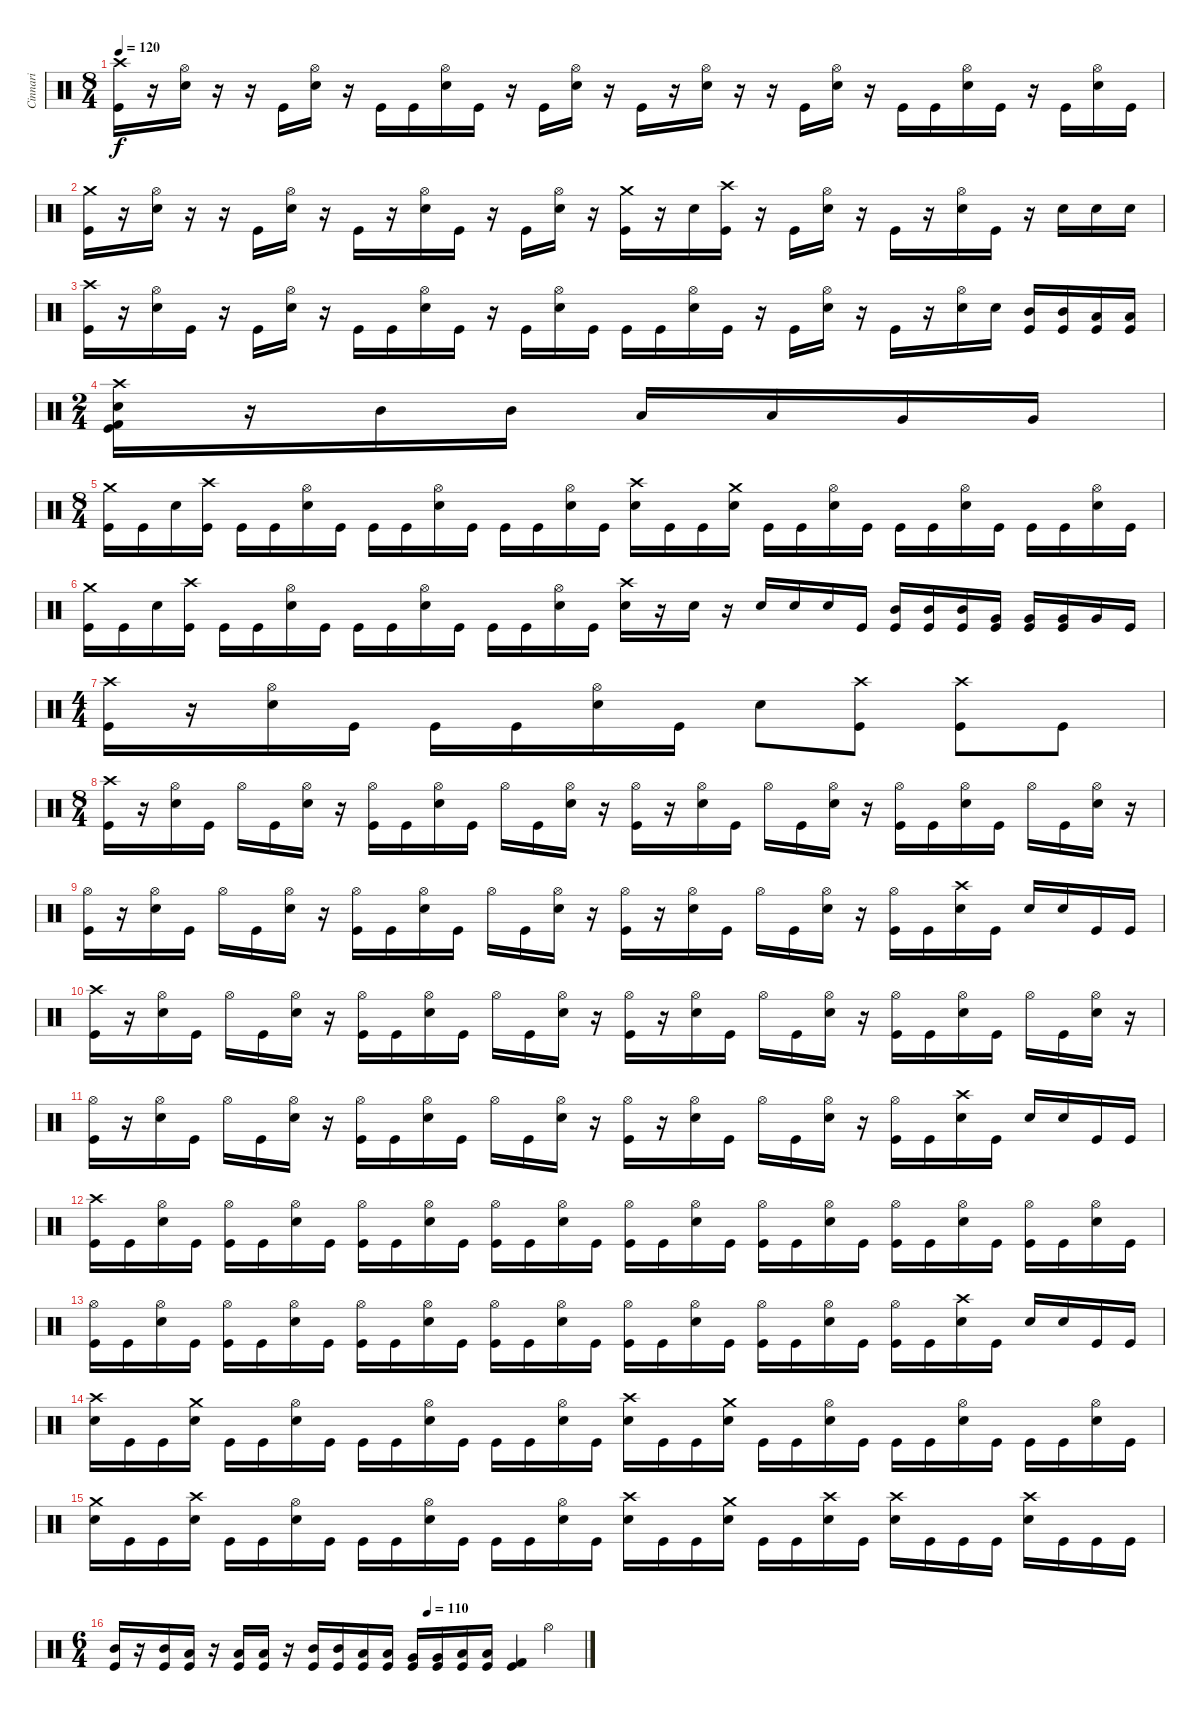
\track ("Cinnari" "Cinnari") {instrument percussion}
\staff {score}
\articulation defaults
\ts (8 4)
\tempo 120
\clef neutral
\ks c
("Crash high (hit)" "Kick (hit)").16{dy f} r.16 ("Hi-Hat (open)" "Electric Snare (hit)").16 r.16 r.16 "Kick (hit)".16 ("Hi-Hat (open)" "Electric Snare (hit)").16 r.16 "Kick (hit)".16 "Kick (hit)".16 ("Hi-Hat (open)" "Electric Snare (hit)").16 "Kick (hit)".16 r.16 "Kick (hit)".16 ("Hi-Hat (open)" "Electric Snare (hit)").16 r.16 "Kick (hit)".16 r.16 ("Hi-Hat (open)" "Electric Snare (hit)").16 r.16 r.16 "Kick (hit)".16 ("Hi-Hat (open)" "Electric Snare (hit)").16 r.16 "Kick (hit)".16 "Kick (hit)".16 ("Hi-Hat (open)" "Electric Snare (hit)").16 "Kick (hit)".16 r.16 "Kick (hit)".16 ("Hi-Hat (open)" "Electric Snare (hit)").16 "Kick (hit)".16 |
("Crash medium (hit)" "Kick (hit)").16 r.16 ("Hi-Hat (open)" "Electric Snare (hit)").16 r.16 r.16 "Kick (hit)".16 ("Hi-Hat (open)" "Electric Snare (hit)").16 r.16 "Kick (hit)".16 r.16 ("Hi-Hat (open)" "Electric Snare (hit)").16 "Kick (hit)".16 r.16 "Kick (hit)".16 ("Hi-Hat (open)" "Electric Snare (hit)").16 r.16 ("Crash medium (hit)" "Kick (hit)").16 r.16 "Electric Snare (hit)".16 ("Crash high (hit)" "Kick (hit)").16 r.16 "Kick (hit)".16 ("Hi-Hat (open)" "Electric Snare (hit)").16 r.16 "Kick (hit)".16 r.16 ("Hi-Hat (open)" "Electric Snare (hit)").16 "Kick (hit)".16 r.16 "Electric Snare (hit)".16 "Electric Snare (hit)".16 "Electric Snare (hit)".16 |
("Crash high (hit)" "Kick (hit)").16 r.16 ("Hi-Hat (open)" "Electric Snare (hit)").16 "Kick (hit)".16 r.16 "Kick (hit)".16 ("Hi-Hat (open)" "Electric Snare (hit)").16 r.16 "Kick (hit)".16 "Kick (hit)".16 ("Hi-Hat (open)" "Electric Snare (hit)").16 "Kick (hit)".16 r.16 "Kick (hit)".16 ("Hi-Hat (open)" "Electric Snare (hit)").16 "Kick (hit)".16 "Kick (hit)".16 "Kick (hit)".16 ("Hi-Hat (open)" "Electric Snare (hit)").16 "Kick (hit)".16 r.16 "Kick (hit)".16 ("Hi-Hat (open)" "Electric Snare (hit)").16 r.16 "Kick (hit)".16 r.16 ("Hi-Hat (open)" "Electric Snare (hit)").16 "Electric Snare (hit)".16 ("Mid Tom (hit)" "Kick (hit)").16 ("Mid Tom (hit)" "Kick (hit)").16 ("Low Tom (hit)" "Kick (hit)").16 ("Low Tom (hit)" "Kick (hit)").16 |
\ts (2 4)
("Crash high (hit)" "Kick (hit) 2" "Electric Snare (hit)" "Kick (hit)").16 r.16 "Mid Tom (hit)".16 "Mid Tom (hit)".16 "Low Tom (hit)".16 "Low Tom (hit)".16 "Very Low Tom (hit)".16 "Very Low Tom (hit)".16 |
\ts (8 4)
("Crash medium (hit)" "Kick (hit)").16 "Kick (hit)".16 "Electric Snare (hit)".16 ("Crash high (hit)" "Kick (hit)").16 "Kick (hit)".16 "Kick (hit)".16 ("Hi-Hat (open)" "Electric Snare (hit)").16 "Kick (hit)".16 "Kick (hit)".16 "Kick (hit)".16 ("Hi-Hat (open)" "Electric Snare (hit)").16 "Kick (hit)".16 "Kick (hit)".16 "Kick (hit)".16 ("Hi-Hat (open)" "Electric Snare (hit)").16 "Kick (hit)".16 ("Crash high (hit)" "Electric Snare (hit)").16 "Kick (hit)".16 "Kick (hit)".16 ("Crash medium (hit)" "Electric Snare (hit)").16 "Kick (hit)".16 "Kick (hit)".16 ("Hi-Hat (open)" "Electric Snare (hit)").16 "Kick (hit)".16 "Kick (hit)".16 "Kick (hit)".16 ("Hi-Hat (open)" "Electric Snare (hit)").16 "Kick (hit)".16 "Kick (hit)".16 "Kick (hit)".16 ("Hi-Hat (open)" "Electric Snare (hit)").16 "Kick (hit)".16 |
("Crash medium (hit)" "Kick (hit)").16 "Kick (hit)".16 "Electric Snare (hit)".16 ("Crash high (hit)" "Kick (hit)").16 "Kick (hit)".16 "Kick (hit)".16 ("Hi-Hat (open)" "Electric Snare (hit)").16 "Kick (hit)".16 "Kick (hit)".16 "Kick (hit)".16 ("Hi-Hat (open)" "Electric Snare (hit)").16 "Kick (hit)".16 "Kick (hit)".16 "Kick (hit)".16 ("Hi-Hat (open)" "Electric Snare (hit)").16 "Kick (hit)".16 ("Crash high (hit)" "Electric Snare (hit)").16 r.16 "Electric Snare (hit)".16 r.16 "Electric Snare (hit)".16 "Electric Snare (hit)".16 "Electric Snare (hit)".16 "Kick (hit)".16 ("Mid Tom (hit)" "Kick (hit)").16 ("Mid Tom (hit)" "Kick (hit)").16 ("Mid Tom (hit)" "Kick (hit)").16 ("Very Low Tom (hit)" "Kick (hit)").16 ("Very Low Tom (hit)" "Kick (hit)").16 ("Very Low Tom (hit)" "Kick (hit)").16 "Very Low Tom (hit)".16 "Kick (hit)".16 |
\ts (4 4)
("Crash high (hit)" "Kick (hit)").16 r.16 ("Hi-Hat (open)" "Electric Snare (hit)").16 "Kick (hit)".16 "Kick (hit)".16 "Kick (hit)".16 ("Hi-Hat (open)" "Electric Snare (hit)").16 "Kick (hit)".16 "Electric Snare (hit)".8 ("Crash high (hit)" "Kick (hit)").8 ("Crash high (hit)" "Kick (hit)").8 "Kick (hit)".8 |
\ts (8 4)
("Crash high (hit)" "Kick (hit)").16 r.16 ("Hi-Hat (open)" "Electric Snare (hit)").16 "Kick (hit)".16 "Hi-Hat (open)".16 "Kick (hit)".16 ("Hi-Hat (open)" "Electric Snare (hit)").16 r.16 ("Hi-Hat (open)" "Kick (hit)").16 "Kick (hit)".16 ("Hi-Hat (open)" "Electric Snare (hit)").16 "Kick (hit)".16 "Hi-Hat (open)".16 "Kick (hit)".16 ("Hi-Hat (open)" "Electric Snare (hit)").16 r.16 ("Hi-Hat (open)" "Kick (hit)").16 r.16 ("Hi-Hat (open)" "Electric Snare (hit)").16 "Kick (hit)".16 "Hi-Hat (open)".16 "Kick (hit)".16 ("Hi-Hat (open)" "Electric Snare (hit)").16 r.16 ("Hi-Hat (open)" "Kick (hit)").16 "Kick (hit)".16 ("Hi-Hat (open)" "Electric Snare (hit)").16 "Kick (hit)".16 "Hi-Hat (open)".16 "Kick (hit)".16 ("Hi-Hat (open)" "Electric Snare (hit)").16 r.16 |
("Hi-Hat (open)" "Kick (hit)").16 r.16 ("Hi-Hat (open)" "Electric Snare (hit)").16 "Kick (hit)".16 "Hi-Hat (open)".16 "Kick (hit)".16 ("Hi-Hat (open)" "Electric Snare (hit)").16 r.16 ("Hi-Hat (open)" "Kick (hit)").16 "Kick (hit)".16 ("Hi-Hat (open)" "Electric Snare (hit)").16 "Kick (hit)".16 "Hi-Hat (open)".16 "Kick (hit)".16 ("Hi-Hat (open)" "Electric Snare (hit)").16 r.16 ("Hi-Hat (open)" "Kick (hit)").16 r.16 ("Hi-Hat (open)" "Electric Snare (hit)").16 "Kick (hit)".16 "Hi-Hat (open)".16 "Kick (hit)".16 ("Hi-Hat (open)" "Electric Snare (hit)").16 r.16 ("Hi-Hat (open)" "Kick (hit)").16 "Kick (hit)".16 ("Crash high (hit)" "Electric Snare (hit)").16 "Kick (hit)".16 "Electric Snare (hit)".16 "Electric Snare (hit)".16 "Kick (hit)".16 "Kick (hit)".16 |
("Crash high (hit)" "Kick (hit)").16 r.16 ("Hi-Hat (open)" "Electric Snare (hit)").16 "Kick (hit)".16 "Hi-Hat (open)".16 "Kick (hit)".16 ("Hi-Hat (open)" "Electric Snare (hit)").16 r.16 ("Hi-Hat (open)" "Kick (hit)").16 "Kick (hit)".16 ("Hi-Hat (open)" "Electric Snare (hit)").16 "Kick (hit)".16 "Hi-Hat (open)".16 "Kick (hit)".16 ("Hi-Hat (open)" "Electric Snare (hit)").16 r.16 ("Hi-Hat (open)" "Kick (hit)").16 r.16 ("Hi-Hat (open)" "Electric Snare (hit)").16 "Kick (hit)".16 "Hi-Hat (open)".16 "Kick (hit)".16 ("Hi-Hat (open)" "Electric Snare (hit)").16 r.16 ("Hi-Hat (open)" "Kick (hit)").16 "Kick (hit)".16 ("Hi-Hat (open)" "Electric Snare (hit)").16 "Kick (hit)".16 "Hi-Hat (open)".16 "Kick (hit)".16 ("Hi-Hat (open)" "Electric Snare (hit)").16 r.16 |
("Hi-Hat (open)" "Kick (hit)").16 r.16 ("Hi-Hat (open)" "Electric Snare (hit)").16 "Kick (hit)".16 "Hi-Hat (open)".16 "Kick (hit)".16 ("Hi-Hat (open)" "Electric Snare (hit)").16 r.16 ("Hi-Hat (open)" "Kick (hit)").16 "Kick (hit)".16 ("Hi-Hat (open)" "Electric Snare (hit)").16 "Kick (hit)".16 "Hi-Hat (open)".16 "Kick (hit)".16 ("Hi-Hat (open)" "Electric Snare (hit)").16 r.16 ("Hi-Hat (open)" "Kick (hit)").16 r.16 ("Hi-Hat (open)" "Electric Snare (hit)").16 "Kick (hit)".16 "Hi-Hat (open)".16 "Kick (hit)".16 ("Hi-Hat (open)" "Electric Snare (hit)").16 r.16 ("Hi-Hat (open)" "Kick (hit)").16 "Kick (hit)".16 ("Crash high (hit)" "Electric Snare (hit)").16 "Kick (hit)".16 "Electric Snare (hit)".16 "Electric Snare (hit)".16 "Kick (hit)".16 "Kick (hit)".16 |
("Crash high (hit)" "Kick (hit)").16 "Kick (hit)".16 ("Hi-Hat (open)" "Electric Snare (hit)").16 "Kick (hit)".16 ("Hi-Hat (open)" "Kick (hit)").16 "Kick (hit)".16 ("Hi-Hat (open)" "Electric Snare (hit)").16 "Kick (hit)".16 ("Hi-Hat (open)" "Kick (hit)").16 "Kick (hit)".16 ("Hi-Hat (open)" "Electric Snare (hit)").16 "Kick (hit)".16 ("Hi-Hat (open)" "Kick (hit)").16 "Kick (hit)".16 ("Hi-Hat (open)" "Electric Snare (hit)").16 "Kick (hit)".16 ("Hi-Hat (open)" "Kick (hit)").16 "Kick (hit)".16 ("Hi-Hat (open)" "Electric Snare (hit)").16 "Kick (hit)".16 ("Hi-Hat (open)" "Kick (hit)").16 "Kick (hit)".16 ("Hi-Hat (open)" "Electric Snare (hit)").16 "Kick (hit)".16 ("Hi-Hat (open)" "Kick (hit)").16 "Kick (hit)".16 ("Hi-Hat (open)" "Electric Snare (hit)").16 "Kick (hit)".16 ("Hi-Hat (open)" "Kick (hit)").16 "Kick (hit)".16 ("Hi-Hat (open)" "Electric Snare (hit)").16 "Kick (hit)".16 |
("Hi-Hat (open)" "Kick (hit)").16 "Kick (hit)".16 ("Hi-Hat (open)" "Electric Snare (hit)").16 "Kick (hit)".16 ("Hi-Hat (open)" "Kick (hit)").16 "Kick (hit)".16 ("Hi-Hat (open)" "Electric Snare (hit)").16 "Kick (hit)".16 ("Hi-Hat (open)" "Kick (hit)").16 "Kick (hit)".16 ("Hi-Hat (open)" "Electric Snare (hit)").16 "Kick (hit)".16 ("Hi-Hat (open)" "Kick (hit)").16 "Kick (hit)".16 ("Hi-Hat (open)" "Electric Snare (hit)").16 "Kick (hit)".16 ("Hi-Hat (open)" "Kick (hit)").16 "Kick (hit)".16 ("Hi-Hat (open)" "Electric Snare (hit)").16 "Kick (hit)".16 ("Hi-Hat (open)" "Kick (hit)").16 "Kick (hit)".16 ("Hi-Hat (open)" "Electric Snare (hit)").16 "Kick (hit)".16 ("Hi-Hat (open)" "Kick (hit)").16 "Kick (hit)".16 ("Crash high (hit)" "Electric Snare (hit)").16 "Kick (hit)".16 "Electric Snare (hit)".16 "Electric Snare (hit)".16 "Kick (hit)".16 "Kick (hit)".16 |
("Crash high (hit)" "Electric Snare (hit)").16 "Kick (hit)".16 "Kick (hit)".16 ("Crash medium (hit)" "Electric Snare (hit)").16 "Kick (hit)".16 "Kick (hit)".16 ("Hi-Hat (open)" "Electric Snare (hit)").16 "Kick (hit)".16 "Kick (hit)".16 "Kick (hit)".16 ("Hi-Hat (open)" "Electric Snare (hit)").16 "Kick (hit)".16 "Kick (hit)".16 "Kick (hit)".16 ("Hi-Hat (open)" "Electric Snare (hit)").16 "Kick (hit)".16 ("Crash high (hit)" "Electric Snare (hit)").16 "Kick (hit)".16 "Kick (hit)".16 ("Crash medium (hit)" "Electric Snare (hit)").16 "Kick (hit)".16 "Kick (hit)".16 ("Hi-Hat (open)" "Electric Snare (hit)").16 "Kick (hit)".16 "Kick (hit)".16 "Kick (hit)".16 ("Hi-Hat (open)" "Electric Snare (hit)").16 "Kick (hit)".16 "Kick (hit)".16 "Kick (hit)".16 ("Hi-Hat (open)" "Electric Snare (hit)").16 "Kick (hit)".16 |
("Crash medium (hit)" "Electric Snare (hit)").16 "Kick (hit)".16 "Kick (hit)".16 ("Crash high (hit)" "Electric Snare (hit)").16 "Kick (hit)".16 "Kick (hit)".16 ("Hi-Hat (open)" "Electric Snare (hit)").16 "Kick (hit)".16 "Kick (hit)".16 "Kick (hit)".16 ("Hi-Hat (open)" "Electric Snare (hit)").16 "Kick (hit)".16 "Kick (hit)".16 "Kick (hit)".16 ("Hi-Hat (open)" "Electric Snare (hit)").16 "Kick (hit)".16 ("Crash high (hit)" "Electric Snare (hit)").16 "Kick (hit)".16 "Kick (hit)".16 ("Crash medium (hit)" "Electric Snare (hit)").16 "Kick (hit)".16 "Kick (hit)".16 ("Crash high (hit)" "Electric Snare (hit)").16 "Kick (hit)".16 ("Crash high (hit)" "Electric Snare (hit)").16 "Kick (hit)".16 "Kick (hit)".16 "Kick (hit)".16 ("Crash high (hit)" "Electric Snare (hit)").16 "Kick (hit)".16 "Kick (hit)".16 "Kick (hit)".16 |
\ts (6 4)
\tempo (110 0.6666666666666666)
("Mid Tom (hit)" "Kick (hit)").16 r.16 ("Mid Tom (hit)" "Kick (hit)").16 ("Low Tom (hit)" "Kick (hit)").16 r.16 ("Low Tom (hit)" "Kick (hit)").16 ("Low Tom (hit)" "Kick (hit)").16 r.16 ("Mid Tom (hit)" "Kick (hit)").16 ("Mid Tom (hit)" "Kick (hit)").16 ("Low Tom (hit)" "Kick (hit)").16 ("Low Tom (hit)" "Kick (hit)").16 ("Very Low Tom (hit)" "Kick (hit)").16 ("Very Low Tom (hit)" "Kick (hit)").16 ("Low Floor Tom (hit)" "Kick (hit)").16 ("Low Floor Tom (hit)" "Kick (hit)").16 ("Kick (hit)" "Kick (hit) 2").4 "Hi-Hat (open)".4
